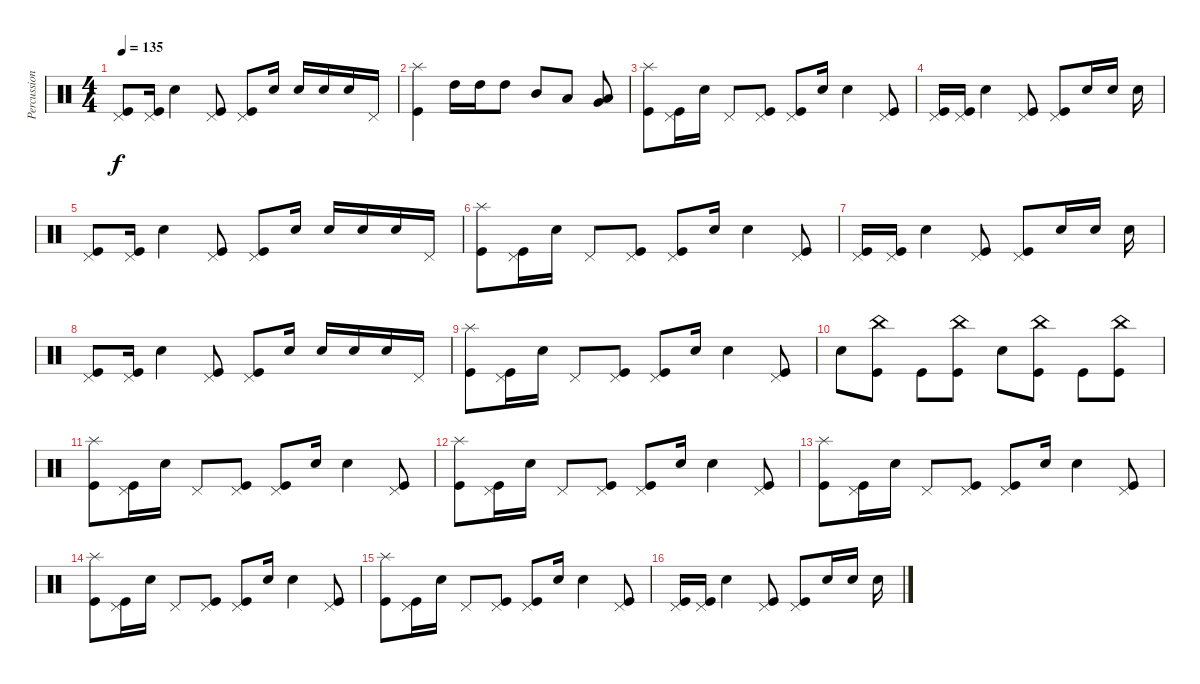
\track ("Percussion" "Percussion") {instrument percussion}
\staff {score}
\articulation defaults
\ts (4 4)
\tempo 135
\clef neutral
\ks c
("Pedal Hi-Hat (hit)" "Kick (hit)").8{dy f} ("Pedal Hi-Hat (hit)" "Kick (hit)").16 "Electric Snare (hit)".4 ("Pedal Hi-Hat (hit)" "Kick (hit)").8 ("Pedal Hi-Hat (hit)" "Kick (hit)").8 "Electric Snare (hit)".16 "Electric Snare (hit)".16 "Electric Snare (hit)".16 "Electric Snare (hit)".16 "Pedal Hi-Hat (hit)".16 |
("Splash (hit)" "Kick (hit)").4 "High Tom (hit)".16 "High Tom (hit)".16 "High Tom (hit)".8 "Mid Tom (hit)".8 "Low Tom (hit)".8 ("Low Floor Tom (hit)" "Very Low Tom (hit)").8 |
("Splash (hit)" "Kick (hit)").8 ("Pedal Hi-Hat (hit)" "Kick (hit)").16 "Electric Snare (hit)".16 "Pedal Hi-Hat (hit)".8 ("Pedal Hi-Hat (hit)" "Kick (hit)").8 ("Pedal Hi-Hat (hit)" "Kick (hit)").8 "Electric Snare (hit)".16 "Electric Snare (hit)".4 ("Pedal Hi-Hat (hit)" "Kick (hit)").8 |
("Pedal Hi-Hat (hit)" "Kick (hit)").16 ("Pedal Hi-Hat (hit)" "Kick (hit)").16 "Electric Snare (hit)".4 ("Pedal Hi-Hat (hit)" "Kick (hit)").8 ("Pedal Hi-Hat (hit)" "Kick (hit)").8 "Electric Snare (hit)".16 "Electric Snare (hit)".16 "Electric Snare (hit)".16 |
("Pedal Hi-Hat (hit)" "Kick (hit)").8 ("Pedal Hi-Hat (hit)" "Kick (hit)").16 "Electric Snare (hit)".4 ("Pedal Hi-Hat (hit)" "Kick (hit)").8 ("Pedal Hi-Hat (hit)" "Kick (hit)").8 "Electric Snare (hit)".16 "Electric Snare (hit)".16 "Electric Snare (hit)".16 "Electric Snare (hit)".16 "Pedal Hi-Hat (hit)".16 |
("Splash (hit)" "Kick (hit)").8 ("Pedal Hi-Hat (hit)" "Kick (hit)").16 "Electric Snare (hit)".16 "Pedal Hi-Hat (hit)".8 ("Pedal Hi-Hat (hit)" "Kick (hit)").8 ("Pedal Hi-Hat (hit)" "Kick (hit)").8 "Electric Snare (hit)".16 "Electric Snare (hit)".4 ("Pedal Hi-Hat (hit)" "Kick (hit)").8 |
("Pedal Hi-Hat (hit)" "Kick (hit)").16 ("Pedal Hi-Hat (hit)" "Kick (hit)").16 "Electric Snare (hit)".4 ("Pedal Hi-Hat (hit)" "Kick (hit)").8 ("Pedal Hi-Hat (hit)" "Kick (hit)").8 "Electric Snare (hit)".16 "Electric Snare (hit)".16 "Electric Snare (hit)".16 |
("Pedal Hi-Hat (hit)" "Kick (hit)").8 ("Pedal Hi-Hat (hit)" "Kick (hit)").16 "Electric Snare (hit)".4 ("Pedal Hi-Hat (hit)" "Kick (hit)").8 ("Pedal Hi-Hat (hit)" "Kick (hit)").8 "Electric Snare (hit)".16 "Electric Snare (hit)".16 "Electric Snare (hit)".16 "Electric Snare (hit)".16 "Pedal Hi-Hat (hit)".16 |
("Splash (hit)" "Kick (hit)").8 ("Pedal Hi-Hat (hit)" "Kick (hit)").16 "Electric Snare (hit)".16 "Pedal Hi-Hat (hit)".8 ("Pedal Hi-Hat (hit)" "Kick (hit)").8 ("Pedal Hi-Hat (hit)" "Kick (hit)").8 "Electric Snare (hit)".16 "Electric Snare (hit)".4 ("Pedal Hi-Hat (hit)" "Kick (hit)").8 |
"Electric Snare (hit)".8 ("China (hit)" "Kick (hit)").8 "Kick (hit)".8 ("China (hit)" "Kick (hit)").8 "Electric Snare (hit)".8 ("China (hit)" "Kick (hit)").8 "Kick (hit)".8 ("China (hit)" "Kick (hit)").8 |
("Splash (hit)" "Kick (hit)").8 ("Pedal Hi-Hat (hit)" "Kick (hit)").16 "Electric Snare (hit)".16 "Pedal Hi-Hat (hit)".8 ("Pedal Hi-Hat (hit)" "Kick (hit)").8 ("Pedal Hi-Hat (hit)" "Kick (hit)").8 "Electric Snare (hit)".16 "Electric Snare (hit)".4 ("Pedal Hi-Hat (hit)" "Kick (hit)").8 |
("Splash (hit)" "Kick (hit)").8 ("Pedal Hi-Hat (hit)" "Kick (hit)").16 "Electric Snare (hit)".16 "Pedal Hi-Hat (hit)".8 ("Pedal Hi-Hat (hit)" "Kick (hit)").8 ("Pedal Hi-Hat (hit)" "Kick (hit)").8 "Electric Snare (hit)".16 "Electric Snare (hit)".4 ("Pedal Hi-Hat (hit)" "Kick (hit)").8 |
("Splash (hit)" "Kick (hit)").8 ("Pedal Hi-Hat (hit)" "Kick (hit)").16 "Electric Snare (hit)".16 "Pedal Hi-Hat (hit)".8 ("Pedal Hi-Hat (hit)" "Kick (hit)").8 ("Pedal Hi-Hat (hit)" "Kick (hit)").8 "Electric Snare (hit)".16 "Electric Snare (hit)".4 ("Pedal Hi-Hat (hit)" "Kick (hit)").8 |
("Splash (hit)" "Kick (hit)").8 ("Pedal Hi-Hat (hit)" "Kick (hit)").16 "Electric Snare (hit)".16 "Pedal Hi-Hat (hit)".8 ("Pedal Hi-Hat (hit)" "Kick (hit)").8 ("Pedal Hi-Hat (hit)" "Kick (hit)").8 "Electric Snare (hit)".16 "Electric Snare (hit)".4 ("Pedal Hi-Hat (hit)" "Kick (hit)").8 |
("Splash (hit)" "Kick (hit)").8 ("Pedal Hi-Hat (hit)" "Kick (hit)").16 "Electric Snare (hit)".16 "Pedal Hi-Hat (hit)".8 ("Pedal Hi-Hat (hit)" "Kick (hit)").8 ("Pedal Hi-Hat (hit)" "Kick (hit)").8 "Electric Snare (hit)".16 "Electric Snare (hit)".4 ("Pedal Hi-Hat (hit)" "Kick (hit)").8 |
("Pedal Hi-Hat (hit)" "Kick (hit)").16 ("Pedal Hi-Hat (hit)" "Kick (hit)").16 "Electric Snare (hit)".4 ("Pedal Hi-Hat (hit)" "Kick (hit)").8 ("Pedal Hi-Hat (hit)" "Kick (hit)").8 "Electric Snare (hit)".16 "Electric Snare (hit)".16 "Electric Snare (hit)".16
